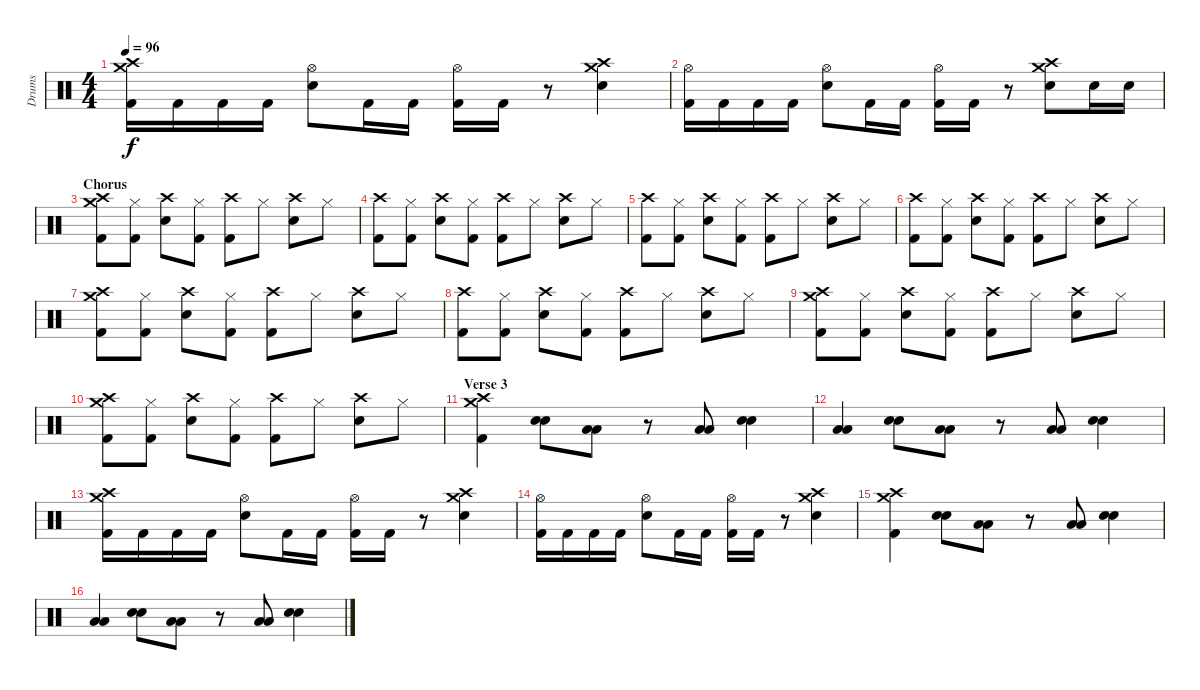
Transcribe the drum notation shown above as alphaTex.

\track ("Drums" "Drums") {instrument percussion}
\staff {score}
\articulation defaults
\ts (4 4)
\tempo 96
\clef neutral
\ks c
("Crash high (hit)" "Crash medium (hit)" "Kick (hit) 2").16{dy f} "Kick (hit) 2".16 "Kick (hit) 2".16 "Kick (hit) 2".16 ("Hi-Hat (open)" "Electric Snare (hit)").8 "Kick (hit) 2".16 "Kick (hit) 2".16 ("Hi-Hat (open)" "Kick (hit) 2").16 "Kick (hit) 2".16 r.8 ("Crash high (hit)" "Crash medium (hit)" "Electric Snare (hit)").4 |
("Hi-Hat (open)" "Kick (hit) 2").16 "Kick (hit) 2".16 "Kick (hit) 2".16 "Kick (hit) 2".16 ("Hi-Hat (open)" "Electric Snare (hit)").8 "Kick (hit) 2".16 "Kick (hit) 2".16 ("Hi-Hat (open)" "Kick (hit) 2").16 "Kick (hit) 2".16 r.8 ("Crash high (hit)" "Crash medium (hit)" "Electric Snare (hit)").8 "Electric Snare (hit)".16 "Electric Snare (hit)".16 |
\section ("" "Chorus")
("Crash high (hit)" "Crash medium (hit)" "Kick (hit) 2").8 ("Hi-Hat (closed)" "Kick (hit) 2").8 ("Crash high (hit)" "Electric Snare (hit)").8 ("Hi-Hat (closed)" "Kick (hit) 2").8 ("Crash high (hit)" "Kick (hit) 2").8 "Hi-Hat (closed)".8 ("Crash high (hit)" "Electric Snare (hit)").8 "Hi-Hat (closed)".8 |
("Crash high (hit)" "Kick (hit) 2").8 ("Hi-Hat (closed)" "Kick (hit) 2").8 ("Crash high (hit)" "Electric Snare (hit)").8 ("Hi-Hat (closed)" "Kick (hit) 2").8 ("Crash high (hit)" "Kick (hit) 2").8 "Hi-Hat (closed)".8 ("Crash high (hit)" "Electric Snare (hit)").8 "Hi-Hat (closed)".8 |
("Crash high (hit)" "Kick (hit) 2").8 ("Hi-Hat (closed)" "Kick (hit) 2").8 ("Crash high (hit)" "Electric Snare (hit)").8 ("Hi-Hat (closed)" "Kick (hit) 2").8 ("Crash high (hit)" "Kick (hit) 2").8 "Hi-Hat (closed)".8 ("Crash high (hit)" "Electric Snare (hit)").8 "Hi-Hat (closed)".8 |
("Crash high (hit)" "Kick (hit) 2").8 ("Hi-Hat (closed)" "Kick (hit) 2").8 ("Crash high (hit)" "Electric Snare (hit)").8 ("Hi-Hat (closed)" "Kick (hit) 2").8 ("Crash high (hit)" "Kick (hit) 2").8 "Hi-Hat (closed)".8 ("Crash high (hit)" "Electric Snare (hit)").8 "Hi-Hat (closed)".8 |
("Crash high (hit)" "Crash medium (hit)" "Kick (hit) 2").8 ("Hi-Hat (closed)" "Kick (hit) 2").8 ("Crash high (hit)" "Electric Snare (hit)").8 ("Hi-Hat (closed)" "Kick (hit) 2").8 ("Crash high (hit)" "Kick (hit) 2").8 "Hi-Hat (closed)".8 ("Crash high (hit)" "Electric Snare (hit)").8 "Hi-Hat (closed)".8 |
("Crash high (hit)" "Kick (hit) 2").8 ("Hi-Hat (closed)" "Kick (hit) 2").8 ("Crash high (hit)" "Electric Snare (hit)").8 ("Hi-Hat (closed)" "Kick (hit) 2").8 ("Crash high (hit)" "Kick (hit) 2").8 "Hi-Hat (closed)".8 ("Crash high (hit)" "Electric Snare (hit)").8 "Hi-Hat (closed)".8 |
("Crash high (hit)" "Crash medium (hit)" "Kick (hit) 2").8 ("Hi-Hat (closed)" "Kick (hit) 2").8 ("Crash high (hit)" "Electric Snare (hit)").8 ("Hi-Hat (closed)" "Kick (hit) 2").8 ("Crash high (hit)" "Kick (hit) 2").8 "Hi-Hat (closed)".8 ("Crash high (hit)" "Electric Snare (hit)").8 "Hi-Hat (closed)".8 |
("Crash high (hit)" "Crash medium (hit)" "Kick (hit) 2").8 ("Hi-Hat (closed)" "Kick (hit) 2").8 ("Crash high (hit)" "Electric Snare (hit)").8 ("Hi-Hat (closed)" "Kick (hit) 2").8 ("Crash high (hit)" "Kick (hit) 2").8 "Hi-Hat (closed)".8 ("Crash high (hit)" "Electric Snare (hit)").8 "Hi-Hat (closed)".8 |
\section ("" "Verse 3")
("Crash high (hit)" "Crash medium (hit)" "Kick (hit) 2").4 ("Electric Snare (hit)" "Electric Snare (hit)").8 ("Low Floor Tom (hit)" "Low Floor Tom (hit)").8 r.8 ("Low Floor Tom (hit)" "Low Floor Tom (hit)").8 ("Electric Snare (hit)" "Electric Snare (hit)").4 |
("Low Floor Tom (hit)" "Low Floor Tom (hit)").4 ("Electric Snare (hit)" "Electric Snare (hit)").8 ("Low Floor Tom (hit)" "Low Floor Tom (hit)").8 r.8 ("Low Floor Tom (hit)" "Low Floor Tom (hit)").8 ("Electric Snare (hit)" "Electric Snare (hit)").4 |
("Crash high (hit)" "Crash medium (hit)" "Kick (hit) 2").16 "Kick (hit) 2".16 "Kick (hit) 2".16 "Kick (hit) 2".16 ("Hi-Hat (open)" "Electric Snare (hit)").8 "Kick (hit) 2".16 "Kick (hit) 2".16 ("Hi-Hat (open)" "Kick (hit) 2").16 "Kick (hit) 2".16 r.8 ("Crash high (hit)" "Crash medium (hit)" "Electric Snare (hit)").4 |
("Hi-Hat (open)" "Kick (hit) 2").16 "Kick (hit) 2".16 "Kick (hit) 2".16 "Kick (hit) 2".16 ("Hi-Hat (open)" "Electric Snare (hit)").8 "Kick (hit) 2".16 "Kick (hit) 2".16 ("Hi-Hat (open)" "Kick (hit) 2").16 "Kick (hit) 2".16 r.8 ("Crash high (hit)" "Crash medium (hit)" "Electric Snare (hit)").4 |
("Crash high (hit)" "Crash medium (hit)" "Kick (hit) 2").4 ("Electric Snare (hit)" "Electric Snare (hit)").8 ("Low Floor Tom (hit)" "Low Floor Tom (hit)").8 r.8 ("Low Floor Tom (hit)" "Low Floor Tom (hit)").8 ("Electric Snare (hit)" "Electric Snare (hit)").4 |
("Low Floor Tom (hit)" "Low Floor Tom (hit)").4 ("Electric Snare (hit)" "Electric Snare (hit)").8 ("Low Floor Tom (hit)" "Low Floor Tom (hit)").8 r.8 ("Low Floor Tom (hit)" "Low Floor Tom (hit)").8 ("Electric Snare (hit)" "Electric Snare (hit)").4
